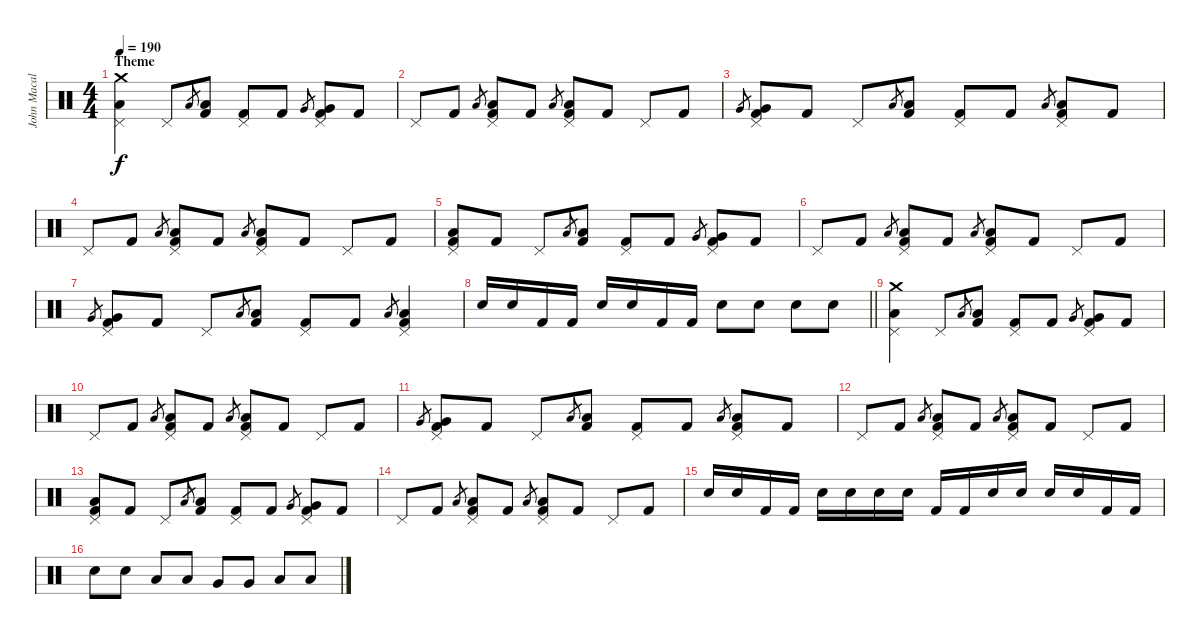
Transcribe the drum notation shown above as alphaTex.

\track ("John Macaluso" "John Macal") {instrument percussion}
\staff {score}
\articulation defaults
\ts (4 4)
\section ("" "Theme")
\tempo 190
\clef neutral
\ks c
("Crash medium (hit)" "Pedal Hi-Hat (hit)" "Low Tom (hit)").4{dy f} "Pedal Hi-Hat (hit)".8 "Low Tom (hit)".8{gr} ("Low Tom (hit)" "Kick (hit) 2").8 ("Pedal Hi-Hat (hit)" "Kick (hit) 2").8 "Kick (hit) 2".8 "Very Low Tom (hit)".8{gr} ("Pedal Hi-Hat (hit)" "Very Low Tom (hit)" "Kick (hit) 2").8 "Kick (hit) 2".8 |
"Pedal Hi-Hat (hit)".8 "Kick (hit) 2".8 "Low Tom (hit)".8{gr} ("Pedal Hi-Hat (hit)" "Low Tom (hit)" "Kick (hit) 2").8 "Kick (hit) 2".8 "Low Tom (hit)".8{gr} ("Pedal Hi-Hat (hit)" "Low Tom (hit)" "Kick (hit) 2").8 "Kick (hit) 2".8 "Pedal Hi-Hat (hit)".8 "Kick (hit) 2".8 |
"Very Low Tom (hit)".8{gr} ("Pedal Hi-Hat (hit)" "Very Low Tom (hit)" "Kick (hit) 2").8 "Kick (hit) 2".8 "Pedal Hi-Hat (hit)".8 "Low Tom (hit)".8{gr} ("Low Tom (hit)" "Kick (hit) 2").8 ("Pedal Hi-Hat (hit)" "Kick (hit) 2").8 "Kick (hit) 2".8 "Low Tom (hit)".8{gr} ("Pedal Hi-Hat (hit)" "Low Tom (hit)" "Kick (hit) 2").8 "Kick (hit) 2".8 |
"Pedal Hi-Hat (hit)".8 "Kick (hit) 2".8 "Low Tom (hit)".8{gr} ("Pedal Hi-Hat (hit)" "Low Tom (hit)" "Kick (hit) 2").8 "Kick (hit) 2".8 "Low Tom (hit)".8{gr} ("Pedal Hi-Hat (hit)" "Low Tom (hit)" "Kick (hit) 2").8 "Kick (hit) 2".8 "Pedal Hi-Hat (hit)".8 "Kick (hit) 2".8 |
("Pedal Hi-Hat (hit)" "Low Tom (hit)" "Kick (hit) 2").8 "Kick (hit) 2".8 "Pedal Hi-Hat (hit)".8 "Low Tom (hit)".8{gr} ("Low Tom (hit)" "Kick (hit) 2").8 ("Pedal Hi-Hat (hit)" "Kick (hit) 2").8 "Kick (hit) 2".8 "Very Low Tom (hit)".8{gr} ("Pedal Hi-Hat (hit)" "Very Low Tom (hit)" "Kick (hit) 2").8 "Kick (hit) 2".8 |
"Pedal Hi-Hat (hit)".8 "Kick (hit) 2".8 "Low Tom (hit)".8{gr} ("Pedal Hi-Hat (hit)" "Low Tom (hit)" "Kick (hit) 2").8 "Kick (hit) 2".8 "Low Tom (hit)".8{gr} ("Pedal Hi-Hat (hit)" "Low Tom (hit)" "Kick (hit) 2").8 "Kick (hit) 2".8 "Pedal Hi-Hat (hit)".8 "Kick (hit) 2".8 |
"Very Low Tom (hit)".8{gr} ("Pedal Hi-Hat (hit)" "Very Low Tom (hit)" "Kick (hit) 2").8 "Kick (hit) 2".8 "Pedal Hi-Hat (hit)".8 "Low Tom (hit)".8{gr} ("Low Tom (hit)" "Kick (hit) 2").8 ("Pedal Hi-Hat (hit)" "Kick (hit) 2").8 "Kick (hit) 2".8 "Low Tom (hit)".8{gr} ("Pedal Hi-Hat (hit)" "Low Tom (hit)" "Kick (hit) 2").4 |
\barLineRight lightlight "Snare (hit) 2".16 "Snare (hit) 2".16 "Kick (hit) 2".16 "Kick (hit) 2".16 "Snare (hit) 2".16 "Snare (hit) 2".16 "Kick (hit) 2".16 "Kick (hit) 2".16 "Snare (hit) 2".8 "Snare (hit) 2".8 "Snare (hit) 2".8 "Snare (hit) 2".8
|
("Crash medium (hit)" "Pedal Hi-Hat (hit)" "Low Tom (hit)").4 "Pedal Hi-Hat (hit)".8 "Low Tom (hit)".8{gr} ("Low Tom (hit)" "Kick (hit) 2").8 ("Pedal Hi-Hat (hit)" "Kick (hit) 2").8 "Kick (hit) 2".8 "Very Low Tom (hit)".8{gr} ("Pedal Hi-Hat (hit)" "Very Low Tom (hit)" "Kick (hit) 2").8 "Kick (hit) 2".8 |
"Pedal Hi-Hat (hit)".8 "Kick (hit) 2".8 "Low Tom (hit)".8{gr} ("Pedal Hi-Hat (hit)" "Low Tom (hit)" "Kick (hit) 2").8 "Kick (hit) 2".8 "Low Tom (hit)".8{gr} ("Pedal Hi-Hat (hit)" "Low Tom (hit)" "Kick (hit) 2").8 "Kick (hit) 2".8 "Pedal Hi-Hat (hit)".8 "Kick (hit) 2".8 |
"Very Low Tom (hit)".8{gr} ("Pedal Hi-Hat (hit)" "Very Low Tom (hit)" "Kick (hit) 2").8 "Kick (hit) 2".8 "Pedal Hi-Hat (hit)".8 "Low Tom (hit)".8{gr} ("Low Tom (hit)" "Kick (hit) 2").8 ("Pedal Hi-Hat (hit)" "Kick (hit) 2").8 "Kick (hit) 2".8 "Low Tom (hit)".8{gr} ("Pedal Hi-Hat (hit)" "Low Tom (hit)" "Kick (hit) 2").8 "Kick (hit) 2".8 |
"Pedal Hi-Hat (hit)".8 "Kick (hit) 2".8 "Low Tom (hit)".8{gr} ("Pedal Hi-Hat (hit)" "Low Tom (hit)" "Kick (hit) 2").8 "Kick (hit) 2".8 "Low Tom (hit)".8{gr} ("Pedal Hi-Hat (hit)" "Low Tom (hit)" "Kick (hit) 2").8 "Kick (hit) 2".8 "Pedal Hi-Hat (hit)".8 "Kick (hit) 2".8 |
("Pedal Hi-Hat (hit)" "Low Tom (hit)" "Kick (hit) 2").8 "Kick (hit) 2".8 "Pedal Hi-Hat (hit)".8 "Low Tom (hit)".8{gr} ("Low Tom (hit)" "Kick (hit) 2").8 ("Pedal Hi-Hat (hit)" "Kick (hit) 2").8 "Kick (hit) 2".8 "Very Low Tom (hit)".8{gr} ("Pedal Hi-Hat (hit)" "Very Low Tom (hit)" "Kick (hit) 2").8 "Kick (hit) 2".8 |
"Pedal Hi-Hat (hit)".8 "Kick (hit) 2".8 "Low Tom (hit)".8{gr} ("Pedal Hi-Hat (hit)" "Low Tom (hit)" "Kick (hit) 2").8 "Kick (hit) 2".8 "Low Tom (hit)".8{gr} ("Pedal Hi-Hat (hit)" "Low Tom (hit)" "Kick (hit) 2").8 "Kick (hit) 2".8 "Pedal Hi-Hat (hit)".8 "Kick (hit) 2".8 |
"Snare (hit) 2".16 "Snare (hit) 2".16 "Kick (hit) 2".16 "Kick (hit) 2".16 "Snare (hit) 2".16 "Snare (hit) 2".16 "Snare (hit) 2".16 "Snare (hit) 2".16 "Kick (hit) 2".16 "Kick (hit) 2".16 "Snare (hit) 2".16 "Snare (hit) 2".16 "Snare (hit) 2".16 "Snare (hit) 2".16 "Kick (hit) 2".16 "Kick (hit) 2".16 |
"Snare (hit) 2".8 "Snare (hit) 2".8 "Low Tom (hit)".8 "Low Tom (hit)".8 "Very Low Tom (hit)".8 "Very Low Tom (hit)".8 "Low Floor Tom (hit)".8 "Low Floor Tom (hit)".8
